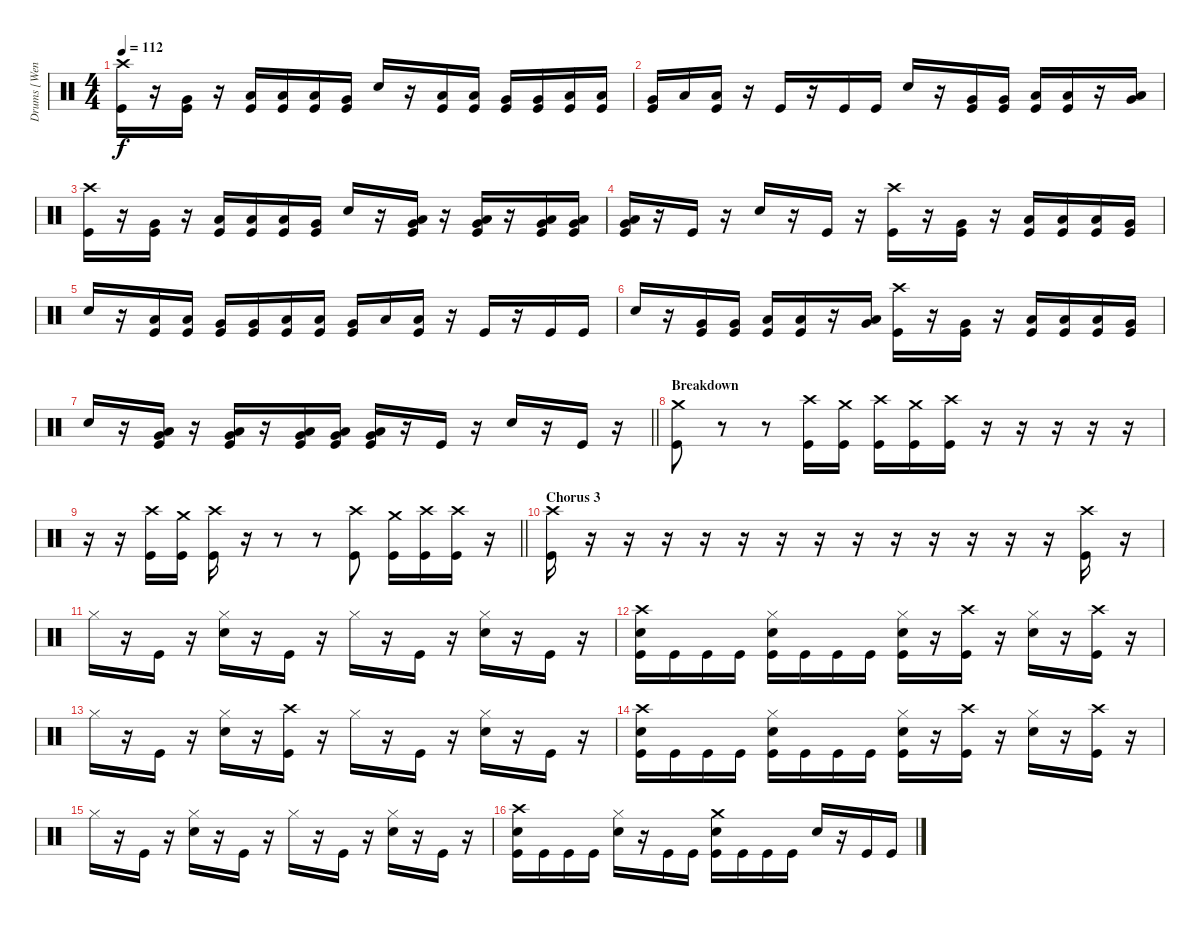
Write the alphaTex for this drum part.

\track ("Drums [Wengren]" "Drums [Wen") {instrument percussion}
\staff {score}
\articulation defaults
\ts (4 4)
\tempo 112
\clef neutral
\ks c
("Crash high (hit)" "Kick (hit)").16{dy f} r.16 ("Very Low Tom (hit)" "Kick (hit)").16 r.16 ("Low Floor Tom (hit)" "Kick (hit)").16 ("Low Floor Tom (hit)" "Kick (hit)").16 ("Low Floor Tom (hit)" "Kick (hit)").16 ("Very Low Tom (hit)" "Kick (hit)").16 "Electric Snare (hit)".16 r.16 ("Low Tom (hit)" "Kick (hit)").16 ("Low Tom (hit)" "Kick (hit)").16 ("Very Low Tom (hit)" "Kick (hit)").16 ("Very Low Tom (hit)" "Kick (hit)").16 ("Low Floor Tom (hit)" "Kick (hit)").16 ("Low Floor Tom (hit)" "Kick (hit)").16 |
("Very Low Tom (hit)" "Kick (hit)").16 "Low Floor Tom (hit)".16 ("Low Floor Tom (hit)" "Kick (hit)").16 r.16 "Kick (hit)".16 r.16 "Kick (hit)".16 "Kick (hit)".16 "Electric Snare (hit)".16 r.16 ("Very Low Tom (hit)" "Kick (hit)").16 ("Very Low Tom (hit)" "Kick (hit)").16 ("Low Floor Tom (hit)" "Kick (hit)").16 ("Low Floor Tom (hit)" "Kick (hit)").16 r.16 ("Very Low Tom (hit)" "Low Floor Tom (hit)").16 |
("Crash high (hit)" "Kick (hit)").16 r.16 ("Very Low Tom (hit)" "Kick (hit)").16 r.16 ("Low Floor Tom (hit)" "Kick (hit)").16 ("Low Floor Tom (hit)" "Kick (hit)").16 ("Low Floor Tom (hit)" "Kick (hit)").16 ("Very Low Tom (hit)" "Kick (hit)").16 "Electric Snare (hit)".16 r.16 ("Very Low Tom (hit)" "Low Floor Tom (hit)" "Kick (hit)").16 r.16 ("Very Low Tom (hit)" "Low Floor Tom (hit)" "Kick (hit)").16 r.16 ("Very Low Tom (hit)" "Low Floor Tom (hit)" "Kick (hit)").16 ("Very Low Tom (hit)" "Low Floor Tom (hit)" "Kick (hit)").16 |
("Very Low Tom (hit)" "Low Floor Tom (hit)" "Kick (hit)").16 r.16 "Kick (hit)".16 r.16 "Electric Snare (hit)".16 r.16 "Kick (hit)".16 r.16 ("Crash high (hit)" "Kick (hit)").16 r.16 ("Very Low Tom (hit)" "Kick (hit)").16 r.16 ("Low Floor Tom (hit)" "Kick (hit)").16 ("Low Floor Tom (hit)" "Kick (hit)").16 ("Low Floor Tom (hit)" "Kick (hit)").16 ("Very Low Tom (hit)" "Kick (hit)").16 |
"Electric Snare (hit)".16 r.16 ("Low Tom (hit)" "Kick (hit)").16 ("Low Tom (hit)" "Kick (hit)").16 ("Very Low Tom (hit)" "Kick (hit)").16 ("Very Low Tom (hit)" "Kick (hit)").16 ("Low Floor Tom (hit)" "Kick (hit)").16 ("Low Floor Tom (hit)" "Kick (hit)").16 ("Very Low Tom (hit)" "Kick (hit)").16 "Low Floor Tom (hit)".16 ("Low Floor Tom (hit)" "Kick (hit)").16 r.16 "Kick (hit)".16 r.16 "Kick (hit)".16 "Kick (hit)".16 |
"Electric Snare (hit)".16 r.16 ("Very Low Tom (hit)" "Kick (hit)").16 ("Very Low Tom (hit)" "Kick (hit)").16 ("Low Floor Tom (hit)" "Kick (hit)").16 ("Low Floor Tom (hit)" "Kick (hit)").16 r.16 ("Very Low Tom (hit)" "Low Floor Tom (hit)").16 ("Crash high (hit)" "Kick (hit)").16 r.16 ("Very Low Tom (hit)" "Kick (hit)").16 r.16 ("Low Floor Tom (hit)" "Kick (hit)").16 ("Low Floor Tom (hit)" "Kick (hit)").16 ("Low Floor Tom (hit)" "Kick (hit)").16 ("Very Low Tom (hit)" "Kick (hit)").16 |
\barLineRight lightlight "Electric Snare (hit)".16
r.16 ("Very Low Tom (hit)" "Low Floor Tom (hit)" "Kick (hit)").16 r.16 ("Very Low Tom (hit)" "Low Floor Tom (hit)" "Kick (hit)").16 r.16 ("Very Low Tom (hit)" "Low Floor Tom (hit)" "Kick (hit)").16 ("Very Low Tom (hit)" "Low Floor Tom (hit)" "Kick (hit)").16 ("Very Low Tom (hit)" "Low Floor Tom (hit)" "Kick (hit)").16 r.16 "Kick (hit)".16 r.16 "Electric Snare (hit)".16 r.16 "Kick (hit)".16 r.16 |
\section ("" "Breakdown")
("Crash medium (hit)" "Kick (hit)").8 r.8 r.8 ("Crash high (hit)" "Kick (hit)").16 ("Crash medium (hit)" "Kick (hit)").16 ("Crash high (hit)" "Kick (hit)").16 ("Crash medium (hit)" "Kick (hit)").16 ("Crash high (hit)" "Kick (hit)").16 r.16 r.16 r.16 r.16 r.16 |
\barLineRight lightlight
r.16 r.16 ("Crash high (hit)" "Kick (hit)").16 ("Crash medium (hit)" "Kick (hit)").16 ("Crash high (hit)" "Kick (hit)").16 r.16 r.8 r.8 ("Crash high (hit)" "Kick (hit)").8 ("Crash medium (hit)" "Kick (hit)").16 ("Crash high (hit)" "Kick (hit)").16 ("Crash high (hit)" "Kick (hit)").16 r.16 |
\section ("" "Chorus 3")
("Crash high (hit)" "Kick (hit)").16 r.16 r.16 r.16 r.16 r.16 r.16 r.16 r.16 r.16 r.16 r.16 r.16 r.16 ("Crash high (hit)" "Kick (hit)").16 r.16 |
"Hi-Hat (closed)".16 r.16 "Kick (hit)".16 r.16 ("Hi-Hat (closed)" "Electric Snare (hit)").16 r.16 "Kick (hit)".16 r.16 "Hi-Hat (closed)".16 r.16 "Kick (hit)".16 r.16 ("Hi-Hat (closed)" "Electric Snare (hit)").16 r.16 "Kick (hit)".16 r.16 |
("Crash high (hit)" "Electric Snare (hit)" "Kick (hit)").16 "Kick (hit)".16 "Kick (hit)".16 "Kick (hit)".16 ("Hi-Hat (closed)" "Electric Snare (hit)" "Kick (hit)").16 "Kick (hit)".16 "Kick (hit)".16 "Kick (hit)".16 ("Hi-Hat (closed)" "Electric Snare (hit)" "Kick (hit)").16 r.16 ("Crash high (hit)" "Kick (hit)").16 r.16 ("Hi-Hat (closed)" "Electric Snare (hit)").16 r.16 ("Crash high (hit)" "Kick (hit)").16 r.16 |
"Hi-Hat (closed)".16 r.16 "Kick (hit)".16 r.16 ("Hi-Hat (closed)" "Electric Snare (hit)").16 r.16 ("Crash high (hit)" "Kick (hit)").16 r.16 "Hi-Hat (closed)".16 r.16 "Kick (hit)".16 r.16 ("Hi-Hat (closed)" "Electric Snare (hit)").16 r.16 "Kick (hit)".16 r.16 |
("Crash high (hit)" "Electric Snare (hit)" "Kick (hit)").16 "Kick (hit)".16 "Kick (hit)".16 "Kick (hit)".16 ("Hi-Hat (closed)" "Electric Snare (hit)" "Kick (hit)").16 "Kick (hit)".16 "Kick (hit)".16 "Kick (hit)".16 ("Hi-Hat (closed)" "Electric Snare (hit)" "Kick (hit)").16 r.16 ("Crash high (hit)" "Kick (hit)").16 r.16 ("Hi-Hat (closed)" "Electric Snare (hit)").16 r.16 ("Crash high (hit)" "Kick (hit)").16 r.16 |
"Hi-Hat (closed)".16 r.16 "Kick (hit)".16 r.16 ("Hi-Hat (closed)" "Electric Snare (hit)").16 r.16 "Kick (hit)".16 r.16 "Hi-Hat (closed)".16 r.16 "Kick (hit)".16 r.16 ("Hi-Hat (closed)" "Electric Snare (hit)").16 r.16 "Kick (hit)".16 r.16 |
("Crash high (hit)" "Electric Snare (hit)" "Kick (hit)").16 "Kick (hit)".16 "Kick (hit)".16 "Kick (hit)".16 ("Hi-Hat (closed)" "Electric Snare (hit)").16 r.16 "Kick (hit)".16 "Kick (hit)".16 ("Crash medium (hit)" "Electric Snare (hit)" "Kick (hit)").16 "Kick (hit)".16 "Kick (hit)".16 "Kick (hit)".16 "Electric Snare (hit)".16 r.16 "Kick (hit)".16 "Kick (hit)".16
